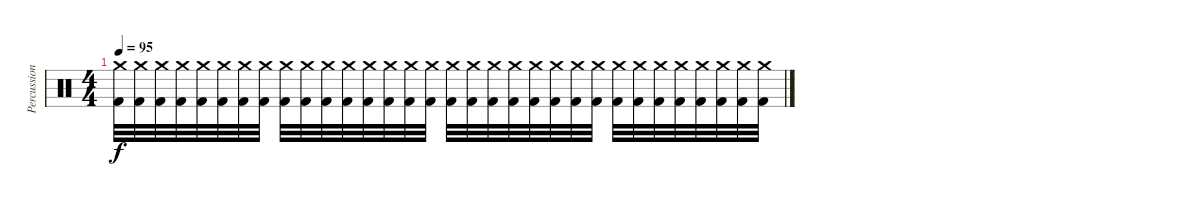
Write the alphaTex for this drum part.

\track ("Percussion" "Percussion") {instrument percussion}
\staff {score}
\articulation defaults
\ts (4 4)
\tempo 95
\clef neutral
\ks c
("Crash medium (hit)" "Kick (hit) 2").32{dy f} ("Crash medium (hit)" "Kick (hit) 2").32 ("Crash medium (hit)" "Kick (hit) 2").32 ("Crash medium (hit)" "Kick (hit) 2").32 ("Crash medium (hit)" "Kick (hit) 2").32 ("Crash medium (hit)" "Kick (hit) 2").32 ("Crash medium (hit)" "Kick (hit) 2").32 ("Crash medium (hit)" "Kick (hit) 2").32 ("Crash medium (hit)" "Kick (hit) 2").32 ("Crash medium (hit)" "Kick (hit) 2").32 ("Crash medium (hit)" "Kick (hit) 2").32 ("Crash medium (hit)" "Kick (hit) 2").32 ("Crash medium (hit)" "Kick (hit) 2").32 ("Crash medium (hit)" "Kick (hit) 2").32 ("Crash medium (hit)" "Kick (hit) 2").32 ("Crash medium (hit)" "Kick (hit) 2").32 ("Crash medium (hit)" "Kick (hit) 2").32 ("Crash medium (hit)" "Kick (hit) 2").32 ("Crash medium (hit)" "Kick (hit) 2").32 ("Crash medium (hit)" "Kick (hit) 2").32 ("Crash medium (hit)" "Kick (hit) 2").32 ("Crash medium (hit)" "Kick (hit) 2").32 ("Crash medium (hit)" "Kick (hit) 2").32 ("Crash medium (hit)" "Kick (hit) 2").32 ("Crash medium (hit)" "Kick (hit) 2").32 ("Crash medium (hit)" "Kick (hit) 2").32 ("Crash medium (hit)" "Kick (hit) 2").32 ("Crash medium (hit)" "Kick (hit) 2").32 ("Crash medium (hit)" "Kick (hit) 2").32 ("Crash medium (hit)" "Kick (hit) 2").32 ("Crash medium (hit)" "Kick (hit) 2").32 ("Crash medium (hit)" "Kick (hit) 2").32
